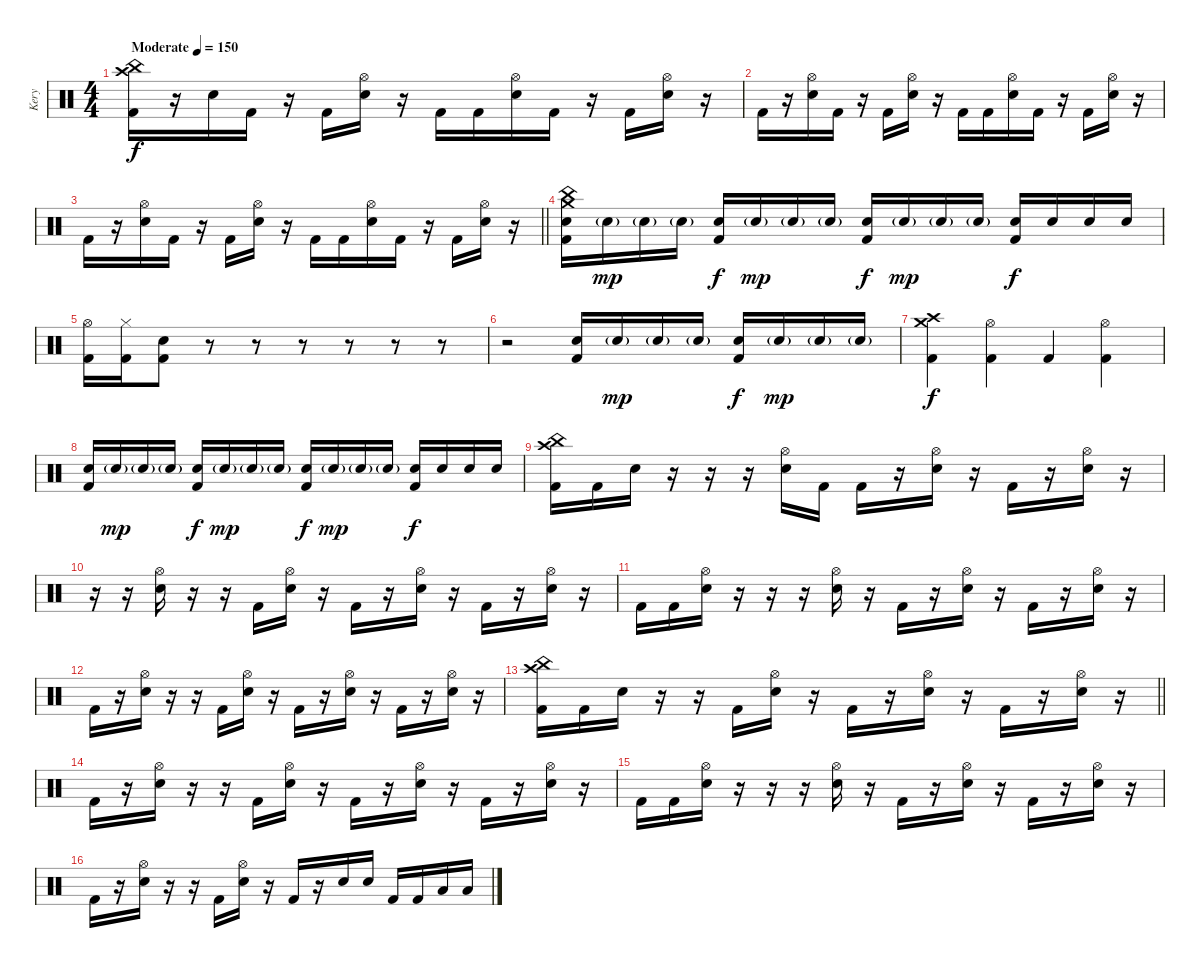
\track ("Kery" "Kery") {instrument percussion}
\staff {score}
\articulation defaults
\ts (4 4)
\tempo (150 "Moderate")
\clef neutral
\ks c
("Crash high (hit)" "China (hit)" "Kick (hit) 2").16{dy f} r.16 "Electric Snare (hit)".16 "Kick (hit) 2".16 r.16 "Kick (hit) 2".16 ("Hi-Hat (open)" "Electric Snare (hit)").16 r.16 "Kick (hit) 2".16 "Kick (hit) 2".16 ("Hi-Hat (open)" "Electric Snare (hit)").16 "Kick (hit) 2".16 r.16 "Kick (hit) 2".16 ("Hi-Hat (open)" "Electric Snare (hit)").16 r.16 |
"Kick (hit) 2".16 r.16 ("Hi-Hat (open)" "Electric Snare (hit)").16 "Kick (hit) 2".16 r.16 "Kick (hit) 2".16 ("Hi-Hat (open)" "Electric Snare (hit)").16 r.16 "Kick (hit) 2".16 "Kick (hit) 2".16 ("Hi-Hat (open)" "Electric Snare (hit)").16 "Kick (hit) 2".16 r.16 "Kick (hit) 2".16 ("Hi-Hat (open)" "Electric Snare (hit)").16 r.16 |
\barLineRight lightlight "Kick (hit) 2".16
r.16 ("Hi-Hat (open)" "Electric Snare (hit)").16 "Kick (hit) 2".16 r.16 "Kick (hit) 2".16 ("Hi-Hat (open)" "Electric Snare (hit)").16 r.16 "Kick (hit) 2".16 "Kick (hit) 2".16 ("Hi-Hat (open)" "Electric Snare (hit)").16 "Kick (hit) 2".16 r.16 "Kick (hit) 2".16 ("Hi-Hat (open)" "Electric Snare (hit)").16 r.16 |
("China (hit)" "Crash medium (hit)" "Electric Snare (hit)" "Kick (hit) 2").16 "Electric Snare (hit)"{g}.16{dy mp} "Electric Snare (hit)"{g}.16 "Electric Snare (hit)"{g}.16 ("Electric Snare (hit)" "Kick (hit) 2").16{dy f} "Electric Snare (hit)"{g}.16{dy mp} "Electric Snare (hit)"{g}.16 "Electric Snare (hit)"{g}.16 ("Electric Snare (hit)" "Kick (hit) 2").16{dy f} "Electric Snare (hit)"{g}.16{dy mp} "Electric Snare (hit)"{g}.16 "Electric Snare (hit)"{g}.16 ("Electric Snare (hit)" "Kick (hit) 2").16{dy f} "Electric Snare (hit)".16 "Electric Snare (hit)".16 "Electric Snare (hit)".16 |
("Hi-Hat (open)" "Kick (hit) 2").16 ("Hi-Hat (closed)" "Kick (hit) 2").16 ("Electric Snare (hit)" "Kick (hit) 2").8 r.8 r.8 r.8 r.8 r.8 r.8 |
r.2 ("Electric Snare (hit)" "Kick (hit) 2").16 "Electric Snare (hit)"{g}.16{dy mp} "Electric Snare (hit)"{g}.16 "Electric Snare (hit)"{g}.16 ("Electric Snare (hit)" "Kick (hit) 2").16{dy f} "Electric Snare (hit)"{g}.16{dy mp} "Electric Snare (hit)"{g}.16 "Electric Snare (hit)"{g}.16 |
("Crash high (hit)" "Crash medium (hit)" "Kick (hit) 2").4{dy f} ("Hi-Hat (open)" "Kick (hit) 2").4 "Kick (hit) 2".4 ("Hi-Hat (open)" "Kick (hit) 2").4 |
("Electric Snare (hit)" "Kick (hit) 2").16 "Electric Snare (hit)"{g}.16{dy mp} "Electric Snare (hit)"{g}.16 "Electric Snare (hit)"{g}.16 ("Electric Snare (hit)" "Kick (hit) 2").16{dy f} "Electric Snare (hit)"{g}.16{dy mp} "Electric Snare (hit)"{g}.16 "Electric Snare (hit)"{g}.16 ("Electric Snare (hit)" "Kick (hit) 2").16{dy f} "Electric Snare (hit)"{g}.16{dy mp} "Electric Snare (hit)"{g}.16 "Electric Snare (hit)"{g}.16 ("Electric Snare (hit)" "Kick (hit) 2").16{dy f} "Electric Snare (hit)".16 "Electric Snare (hit)".16 "Electric Snare (hit)".16 |
("Crash high (hit)" "China (hit)" "Kick (hit) 2").16 "Kick (hit) 2".16 "Electric Snare (hit)".16 r.16 r.16 r.16 ("Hi-Hat (open)" "Electric Snare (hit)").16 "Kick (hit) 2".16 "Kick (hit) 2".16 r.16 ("Hi-Hat (open)" "Electric Snare (hit)").16 r.16 "Kick (hit) 2".16 r.16 ("Hi-Hat (open)" "Electric Snare (hit)").16 r.16 |
r.16 r.16 ("Hi-Hat (open)" "Electric Snare (hit)").16 r.16 r.16 "Kick (hit) 2".16 ("Hi-Hat (open)" "Electric Snare (hit)").16 r.16 "Kick (hit) 2".16 r.16 ("Hi-Hat (open)" "Electric Snare (hit)").16 r.16 "Kick (hit) 2".16 r.16 ("Hi-Hat (open)" "Electric Snare (hit)").16 r.16 |
"Kick (hit) 2".16 "Kick (hit) 2".16 ("Hi-Hat (open)" "Electric Snare (hit)").16 r.16 r.16 r.16 ("Hi-Hat (open)" "Electric Snare (hit)").16 r.16 "Kick (hit) 2".16 r.16 ("Hi-Hat (open)" "Electric Snare (hit)").16 r.16 "Kick (hit) 2".16 r.16 ("Hi-Hat (open)" "Electric Snare (hit)").16 r.16 |
"Kick (hit) 2".16 r.16 ("Hi-Hat (open)" "Electric Snare (hit)").16 r.16 r.16 "Kick (hit) 2".16 ("Hi-Hat (open)" "Electric Snare (hit)").16 r.16 "Kick (hit) 2".16 r.16 ("Hi-Hat (open)" "Electric Snare (hit)").16 r.16 "Kick (hit) 2".16 r.16 ("Hi-Hat (open)" "Electric Snare (hit)").16 r.16 |
\barLineRight lightlight
("Crash high (hit)" "China (hit)" "Kick (hit) 2").16 "Kick (hit) 2".16 "Electric Snare (hit)".16 r.16 r.16 "Kick (hit) 2".16 ("Hi-Hat (open)" "Electric Snare (hit)").16 r.16 "Kick (hit) 2".16 r.16 ("Hi-Hat (open)" "Electric Snare (hit)").16 r.16 "Kick (hit) 2".16 r.16 ("Hi-Hat (open)" "Electric Snare (hit)").16 r.16 |
"Kick (hit) 2".16 r.16 ("Hi-Hat (open)" "Electric Snare (hit)").16 r.16 r.16 "Kick (hit) 2".16 ("Hi-Hat (open)" "Electric Snare (hit)").16 r.16 "Kick (hit) 2".16 r.16 ("Hi-Hat (open)" "Electric Snare (hit)").16 r.16 "Kick (hit) 2".16 r.16 ("Hi-Hat (open)" "Electric Snare (hit)").16 r.16 |
"Kick (hit) 2".16 "Kick (hit) 2".16 ("Hi-Hat (open)" "Electric Snare (hit)").16 r.16 r.16 r.16 ("Hi-Hat (open)" "Electric Snare (hit)").16 r.16 "Kick (hit) 2".16 r.16 ("Hi-Hat (open)" "Electric Snare (hit)").16 r.16 "Kick (hit) 2".16 r.16 ("Hi-Hat (open)" "Electric Snare (hit)").16 r.16 |
"Kick (hit) 2".16 r.16 ("Hi-Hat (open)" "Electric Snare (hit)").16 r.16 r.16 "Kick (hit) 2".16 ("Hi-Hat (open)" "Electric Snare (hit)").16 r.16 "Kick (hit) 2".16 r.16 "Electric Snare (hit)".16 "Electric Snare (hit)".16 "Kick (hit) 2".16 "Kick (hit) 2".16 "Low Tom (hit)".16 "Low Tom (hit)".16
